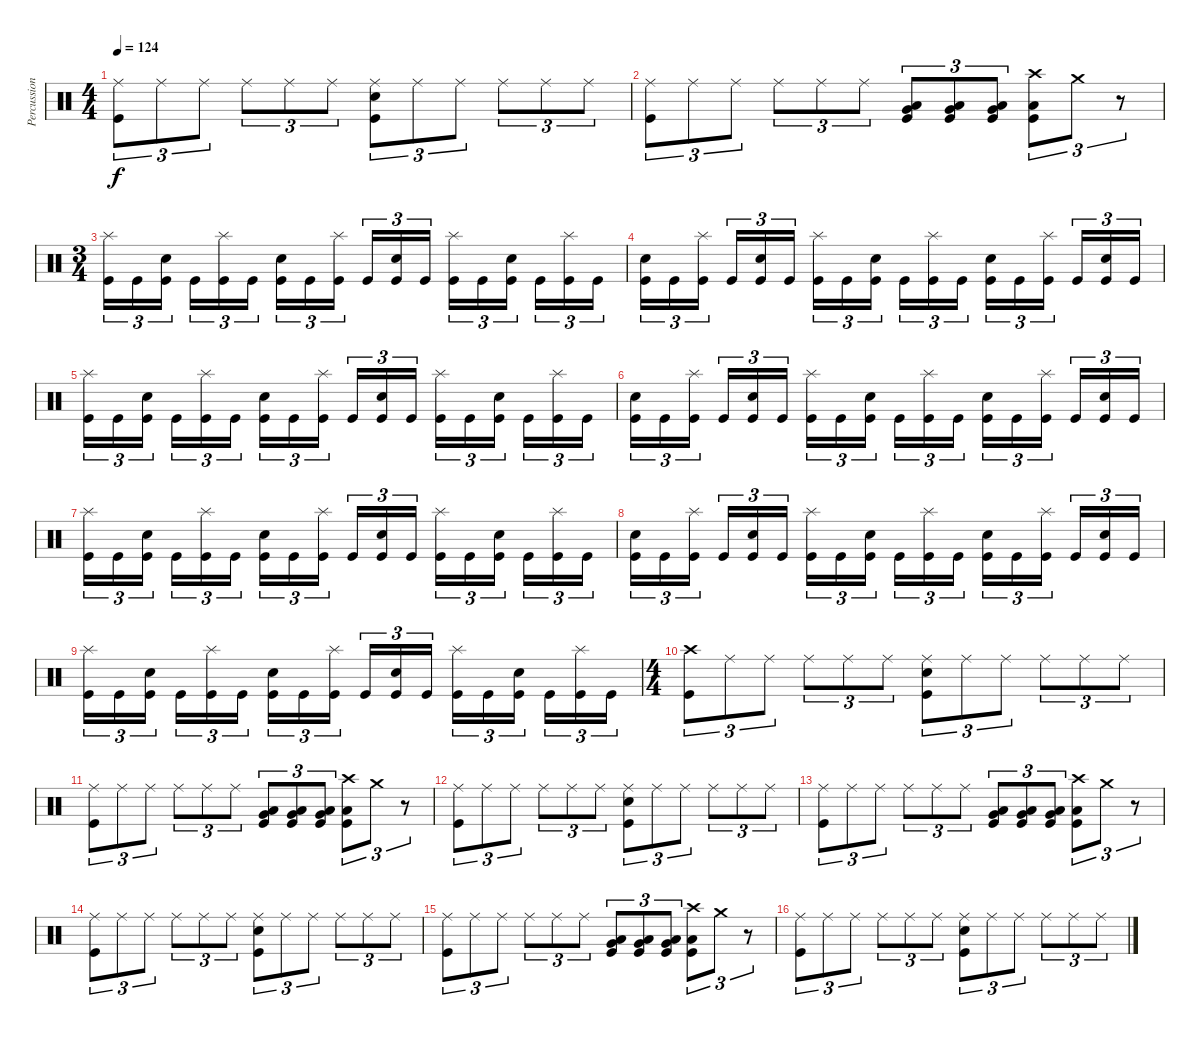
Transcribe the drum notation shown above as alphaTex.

\track ("Percussion" "Percussion") {instrument percussion}
\staff {score}
\articulation defaults
\ts (4 4)
\tempo 124
\clef neutral
\ks c
("Ride (middle)" "Kick (hit)").8{tu (3 2) dy f} "Ride (middle)".8{tu (3 2)} "Ride (middle)".8{tu (3 2)} "Ride (middle)".8{tu (3 2)} "Ride (middle)".8{tu (3 2)} "Ride (middle)".8{tu (3 2)} ("Ride (middle)" "Electric Snare (hit)" "Kick (hit)").8{tu (3 2)} "Ride (middle)".8{tu (3 2)} "Ride (middle)".8{tu (3 2)} "Ride (middle)".8{tu (3 2)} "Ride (middle)".8{tu (3 2)} "Ride (middle)".8{tu (3 2)} |
("Ride (middle)" "Kick (hit)").8{tu (3 2)} "Ride (middle)".8{tu (3 2)} "Ride (middle)".8{tu (3 2)} "Ride (middle)".8{tu (3 2)} "Ride (middle)".8{tu (3 2)} "Ride (middle)".8{tu (3 2)} ("Very Low Tom (hit)" "Low Floor Tom (hit)" "Kick (hit)").8{tu (3 2)} ("Very Low Tom (hit)" "Low Floor Tom (hit)" "Kick (hit)").8{tu (3 2)} ("Very Low Tom (hit)" "Low Floor Tom (hit)" "Kick (hit)").8{tu (3 2)} ("Crash high (hit)" "Low Floor Tom (hit)" "Kick (hit)").8{tu (3 2)} "Crash medium (hit)".8{tu (3 2)} r.8{tu (3 2)} |
\ts (3 4)
("Splash (hit)" "Kick (hit)").16{tu (3 2)} "Kick (hit)".16{tu (3 2)} ("Electric Snare (hit)" "Kick (hit)").16{tu (3 2)} "Kick (hit)".16{tu (3 2)} ("Splash (hit)" "Kick (hit)").16{tu (3 2)} "Kick (hit)".16{tu (3 2)} ("Electric Snare (hit)" "Kick (hit)").16{tu (3 2)} "Kick (hit)".16{tu (3 2)} ("Splash (hit)" "Kick (hit)").16{tu (3 2)} "Kick (hit)".16{tu (3 2)} ("Electric Snare (hit)" "Kick (hit)").16{tu (3 2)} "Kick (hit)".16{tu (3 2)} ("Splash (hit)" "Kick (hit)").16{tu (3 2)} "Kick (hit)".16{tu (3 2)} ("Electric Snare (hit)" "Kick (hit)").16{tu (3 2)} "Kick (hit)".16{tu (3 2)} ("Splash (hit)" "Kick (hit)").16{tu (3 2)} "Kick (hit)".16{tu (3 2)} |
("Electric Snare (hit)" "Kick (hit)").16{tu (3 2)} "Kick (hit)".16{tu (3 2)} ("Splash (hit)" "Kick (hit)").16{tu (3 2)} "Kick (hit)".16{tu (3 2)} ("Electric Snare (hit)" "Kick (hit)").16{tu (3 2)} "Kick (hit)".16{tu (3 2)} ("Splash (hit)" "Kick (hit)").16{tu (3 2)} "Kick (hit)".16{tu (3 2)} ("Electric Snare (hit)" "Kick (hit)").16{tu (3 2)} "Kick (hit)".16{tu (3 2)} ("Splash (hit)" "Kick (hit)").16{tu (3 2)} "Kick (hit)".16{tu (3 2)} ("Electric Snare (hit)" "Kick (hit)").16{tu (3 2)} "Kick (hit)".16{tu (3 2)} ("Splash (hit)" "Kick (hit)").16{tu (3 2)} "Kick (hit)".16{tu (3 2)} ("Electric Snare (hit)" "Kick (hit)").16{tu (3 2)} "Kick (hit)".16{tu (3 2)} |
("Splash (hit)" "Kick (hit)").16{tu (3 2)} "Kick (hit)".16{tu (3 2)} ("Electric Snare (hit)" "Kick (hit)").16{tu (3 2)} "Kick (hit)".16{tu (3 2)} ("Splash (hit)" "Kick (hit)").16{tu (3 2)} "Kick (hit)".16{tu (3 2)} ("Electric Snare (hit)" "Kick (hit)").16{tu (3 2)} "Kick (hit)".16{tu (3 2)} ("Splash (hit)" "Kick (hit)").16{tu (3 2)} "Kick (hit)".16{tu (3 2)} ("Electric Snare (hit)" "Kick (hit)").16{tu (3 2)} "Kick (hit)".16{tu (3 2)} ("Splash (hit)" "Kick (hit)").16{tu (3 2)} "Kick (hit)".16{tu (3 2)} ("Electric Snare (hit)" "Kick (hit)").16{tu (3 2)} "Kick (hit)".16{tu (3 2)} ("Splash (hit)" "Kick (hit)").16{tu (3 2)} "Kick (hit)".16{tu (3 2)} |
("Electric Snare (hit)" "Kick (hit)").16{tu (3 2)} "Kick (hit)".16{tu (3 2)} ("Splash (hit)" "Kick (hit)").16{tu (3 2)} "Kick (hit)".16{tu (3 2)} ("Electric Snare (hit)" "Kick (hit)").16{tu (3 2)} "Kick (hit)".16{tu (3 2)} ("Splash (hit)" "Kick (hit)").16{tu (3 2)} "Kick (hit)".16{tu (3 2)} ("Electric Snare (hit)" "Kick (hit)").16{tu (3 2)} "Kick (hit)".16{tu (3 2)} ("Splash (hit)" "Kick (hit)").16{tu (3 2)} "Kick (hit)".16{tu (3 2)} ("Electric Snare (hit)" "Kick (hit)").16{tu (3 2)} "Kick (hit)".16{tu (3 2)} ("Splash (hit)" "Kick (hit)").16{tu (3 2)} "Kick (hit)".16{tu (3 2)} ("Electric Snare (hit)" "Kick (hit)").16{tu (3 2)} "Kick (hit)".16{tu (3 2)} |
("Splash (hit)" "Kick (hit)").16{tu (3 2)} "Kick (hit)".16{tu (3 2)} ("Electric Snare (hit)" "Kick (hit)").16{tu (3 2)} "Kick (hit)".16{tu (3 2)} ("Splash (hit)" "Kick (hit)").16{tu (3 2)} "Kick (hit)".16{tu (3 2)} ("Electric Snare (hit)" "Kick (hit)").16{tu (3 2)} "Kick (hit)".16{tu (3 2)} ("Splash (hit)" "Kick (hit)").16{tu (3 2)} "Kick (hit)".16{tu (3 2)} ("Electric Snare (hit)" "Kick (hit)").16{tu (3 2)} "Kick (hit)".16{tu (3 2)} ("Splash (hit)" "Kick (hit)").16{tu (3 2)} "Kick (hit)".16{tu (3 2)} ("Electric Snare (hit)" "Kick (hit)").16{tu (3 2)} "Kick (hit)".16{tu (3 2)} ("Splash (hit)" "Kick (hit)").16{tu (3 2)} "Kick (hit)".16{tu (3 2)} |
("Electric Snare (hit)" "Kick (hit)").16{tu (3 2)} "Kick (hit)".16{tu (3 2)} ("Splash (hit)" "Kick (hit)").16{tu (3 2)} "Kick (hit)".16{tu (3 2)} ("Electric Snare (hit)" "Kick (hit)").16{tu (3 2)} "Kick (hit)".16{tu (3 2)} ("Splash (hit)" "Kick (hit)").16{tu (3 2)} "Kick (hit)".16{tu (3 2)} ("Electric Snare (hit)" "Kick (hit)").16{tu (3 2)} "Kick (hit)".16{tu (3 2)} ("Splash (hit)" "Kick (hit)").16{tu (3 2)} "Kick (hit)".16{tu (3 2)} ("Electric Snare (hit)" "Kick (hit)").16{tu (3 2)} "Kick (hit)".16{tu (3 2)} ("Splash (hit)" "Kick (hit)").16{tu (3 2)} "Kick (hit)".16{tu (3 2)} ("Electric Snare (hit)" "Kick (hit)").16{tu (3 2)} "Kick (hit)".16{tu (3 2)} |
("Splash (hit)" "Kick (hit)").16{tu (3 2)} "Kick (hit)".16{tu (3 2)} ("Electric Snare (hit)" "Kick (hit)").16{tu (3 2)} "Kick (hit)".16{tu (3 2)} ("Splash (hit)" "Kick (hit)").16{tu (3 2)} "Kick (hit)".16{tu (3 2)} ("Electric Snare (hit)" "Kick (hit)").16{tu (3 2)} "Kick (hit)".16{tu (3 2)} ("Splash (hit)" "Kick (hit)").16{tu (3 2)} "Kick (hit)".16{tu (3 2)} ("Electric Snare (hit)" "Kick (hit)").16{tu (3 2)} "Kick (hit)".16{tu (3 2)} ("Splash (hit)" "Kick (hit)").16{tu (3 2)} "Kick (hit)".16{tu (3 2)} ("Electric Snare (hit)" "Kick (hit)").16{tu (3 2)} "Kick (hit)".16{tu (3 2)} ("Splash (hit)" "Kick (hit)").16{tu (3 2)} "Kick (hit)".16{tu (3 2)} |
\ts (4 4)
("Crash high (hit)" "Kick (hit)").8{tu (3 2)} "Ride (middle)".8{tu (3 2)} "Ride (middle)".8{tu (3 2)} "Ride (middle)".8{tu (3 2)} "Ride (middle)".8{tu (3 2)} "Ride (middle)".8{tu (3 2)} ("Ride (middle)" "Electric Snare (hit)" "Kick (hit)").8{tu (3 2)} "Ride (middle)".8{tu (3 2)} "Ride (middle)".8{tu (3 2)} "Ride (middle)".8{tu (3 2)} "Ride (middle)".8{tu (3 2)} "Ride (middle)".8{tu (3 2)} |
("Ride (middle)" "Kick (hit)").8{tu (3 2)} "Ride (middle)".8{tu (3 2)} "Ride (middle)".8{tu (3 2)} "Ride (middle)".8{tu (3 2)} "Ride (middle)".8{tu (3 2)} "Ride (middle)".8{tu (3 2)} ("Very Low Tom (hit)" "Low Floor Tom (hit)" "Kick (hit)").8{tu (3 2)} ("Very Low Tom (hit)" "Low Floor Tom (hit)" "Kick (hit)").8{tu (3 2)} ("Very Low Tom (hit)" "Low Floor Tom (hit)" "Kick (hit)").8{tu (3 2)} ("Crash high (hit)" "Low Floor Tom (hit)" "Kick (hit)").8{tu (3 2)} "Crash medium (hit)".8{tu (3 2)} r.8{tu (3 2)} |
("Ride (middle)" "Kick (hit)").8{tu (3 2)} "Ride (middle)".8{tu (3 2)} "Ride (middle)".8{tu (3 2)} "Ride (middle)".8{tu (3 2)} "Ride (middle)".8{tu (3 2)} "Ride (middle)".8{tu (3 2)} ("Ride (middle)" "Electric Snare (hit)" "Kick (hit)").8{tu (3 2)} "Ride (middle)".8{tu (3 2)} "Ride (middle)".8{tu (3 2)} "Ride (middle)".8{tu (3 2)} "Ride (middle)".8{tu (3 2)} "Ride (middle)".8{tu (3 2)} |
("Ride (middle)" "Kick (hit)").8{tu (3 2)} "Ride (middle)".8{tu (3 2)} "Ride (middle)".8{tu (3 2)} "Ride (middle)".8{tu (3 2)} "Ride (middle)".8{tu (3 2)} "Ride (middle)".8{tu (3 2)} ("Very Low Tom (hit)" "Low Floor Tom (hit)" "Kick (hit)").8{tu (3 2)} ("Very Low Tom (hit)" "Low Floor Tom (hit)" "Kick (hit)").8{tu (3 2)} ("Very Low Tom (hit)" "Low Floor Tom (hit)" "Kick (hit)").8{tu (3 2)} ("Crash high (hit)" "Low Floor Tom (hit)" "Kick (hit)").8{tu (3 2)} "Crash medium (hit)".8{tu (3 2)} r.8{tu (3 2)} |
("Ride (middle)" "Kick (hit)").8{tu (3 2)} "Ride (middle)".8{tu (3 2)} "Ride (middle)".8{tu (3 2)} "Ride (middle)".8{tu (3 2)} "Ride (middle)".8{tu (3 2)} "Ride (middle)".8{tu (3 2)} ("Ride (middle)" "Electric Snare (hit)" "Kick (hit)").8{tu (3 2)} "Ride (middle)".8{tu (3 2)} "Ride (middle)".8{tu (3 2)} "Ride (middle)".8{tu (3 2)} "Ride (middle)".8{tu (3 2)} "Ride (middle)".8{tu (3 2)} |
("Ride (middle)" "Kick (hit)").8{tu (3 2)} "Ride (middle)".8{tu (3 2)} "Ride (middle)".8{tu (3 2)} "Ride (middle)".8{tu (3 2)} "Ride (middle)".8{tu (3 2)} "Ride (middle)".8{tu (3 2)} ("Very Low Tom (hit)" "Low Floor Tom (hit)" "Kick (hit)").8{tu (3 2)} ("Very Low Tom (hit)" "Low Floor Tom (hit)" "Kick (hit)").8{tu (3 2)} ("Very Low Tom (hit)" "Low Floor Tom (hit)" "Kick (hit)").8{tu (3 2)} ("Crash high (hit)" "Low Floor Tom (hit)" "Kick (hit)").8{tu (3 2)} "Crash medium (hit)".8{tu (3 2)} r.8{tu (3 2)} |
("Ride (middle)" "Kick (hit)").8{tu (3 2)} "Ride (middle)".8{tu (3 2)} "Ride (middle)".8{tu (3 2)} "Ride (middle)".8{tu (3 2)} "Ride (middle)".8{tu (3 2)} "Ride (middle)".8{tu (3 2)} ("Ride (middle)" "Electric Snare (hit)" "Kick (hit)").8{tu (3 2)} "Ride (middle)".8{tu (3 2)} "Ride (middle)".8{tu (3 2)} "Ride (middle)".8{tu (3 2)} "Ride (middle)".8{tu (3 2)} "Ride (middle)".8{tu (3 2)}
